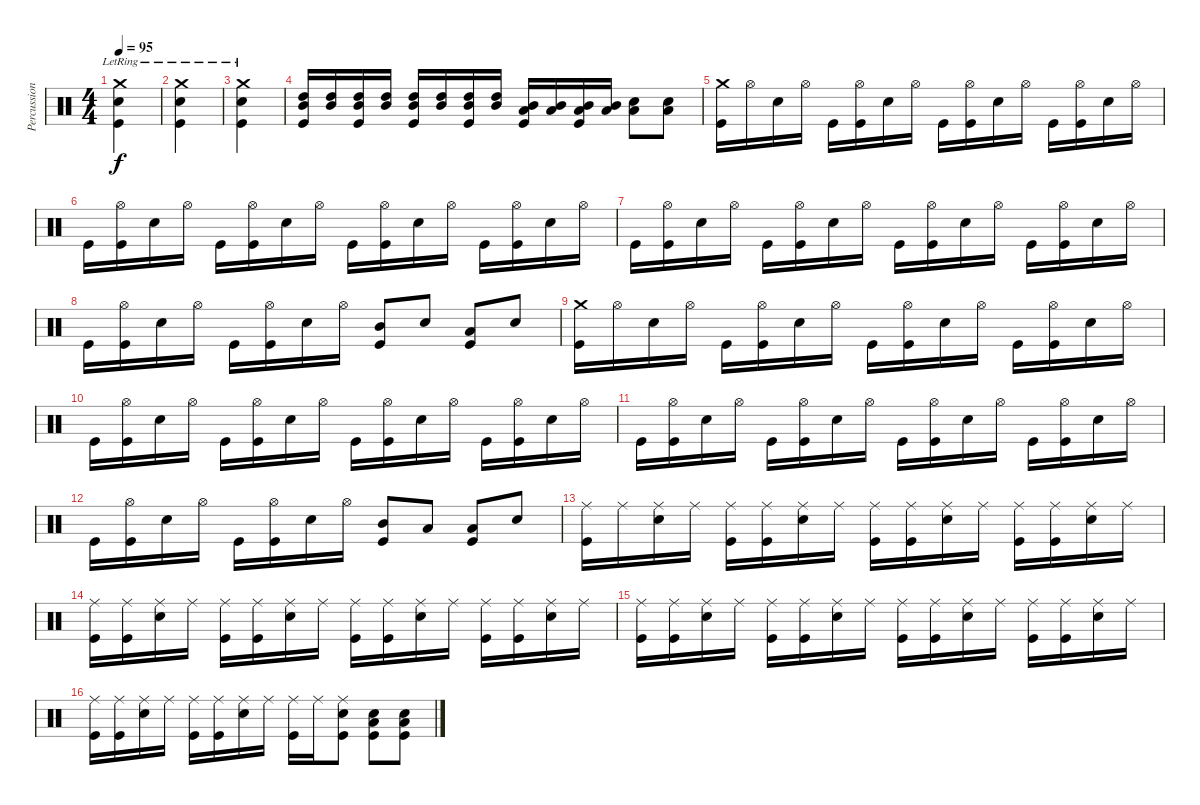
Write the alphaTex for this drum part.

\track ("Percussion" "Percussion") {instrument percussion}
\staff {score}
\articulation defaults
\ts (4 4)
\tempo 95
\clef neutral
\ks c
("Crash medium (hit)"{lr} "Snare (hit) 2" "Kick (hit)").4{dy f} |
("Crash medium (hit)"{lr} "Snare (hit) 2" "Kick (hit)").4 |
("Crash medium (hit)"{lr} "Snare (hit) 2" "Kick (hit)").4 |
("High Tom (hit)" "Mid Tom (hit)" "Kick (hit)").16 ("High Tom (hit)" "Mid Tom (hit)").16 ("High Tom (hit)" "Mid Tom (hit)" "Kick (hit)").16 ("High Tom (hit)" "Mid Tom (hit)").16 ("High Tom (hit)" "Mid Tom (hit)" "Kick (hit)").16 ("High Tom (hit)" "Mid Tom (hit)").16 ("High Tom (hit)" "Mid Tom (hit)" "Kick (hit)").16 ("High Tom (hit)" "Mid Tom (hit)").16 ("Low Tom (hit)" "Mid Tom (hit)" "Kick (hit)").16 ("Low Tom (hit)" "Mid Tom (hit)").16 ("Low Tom (hit)" "Mid Tom (hit)" "Kick (hit)").16 ("Low Tom (hit)" "Mid Tom (hit)").16 ("Snare (hit) 2" "Low Tom (hit)").8 ("Snare (hit) 2" "Low Tom (hit)").8 |
("Crash medium (hit)" "Kick (hit)").16 "Hi-Hat (open)".16 "Snare (hit) 2".16 "Hi-Hat (open)".16 "Kick (hit)".16 ("Hi-Hat (open)" "Kick (hit)").16 "Snare (hit) 2".16 "Hi-Hat (open)".16 "Kick (hit)".16 ("Hi-Hat (open)" "Kick (hit)").16 "Snare (hit) 2".16 "Hi-Hat (open)".16 "Kick (hit)".16 ("Hi-Hat (open)" "Kick (hit)").16 "Snare (hit) 2".16 "Hi-Hat (open)".16 |
"Kick (hit)".16 ("Hi-Hat (open)" "Kick (hit)").16 "Snare (hit) 2".16 "Hi-Hat (open)".16 "Kick (hit)".16 ("Hi-Hat (open)" "Kick (hit)").16 "Snare (hit) 2".16 "Hi-Hat (open)".16 "Kick (hit)".16 ("Hi-Hat (open)" "Kick (hit)").16 "Snare (hit) 2".16 "Hi-Hat (open)".16 "Kick (hit)".16 ("Hi-Hat (open)" "Kick (hit)").16 "Snare (hit) 2".16 "Hi-Hat (open)".16 |
"Kick (hit)".16 ("Hi-Hat (open)" "Kick (hit)").16 "Snare (hit) 2".16 "Hi-Hat (open)".16 "Kick (hit)".16 ("Hi-Hat (open)" "Kick (hit)").16 "Snare (hit) 2".16 "Hi-Hat (open)".16 "Kick (hit)".16 ("Hi-Hat (open)" "Kick (hit)").16 "Snare (hit) 2".16 "Hi-Hat (open)".16 "Kick (hit)".16 ("Hi-Hat (open)" "Kick (hit)").16 "Snare (hit) 2".16 "Hi-Hat (open)".16 |
"Kick (hit)".16 ("Hi-Hat (open)" "Kick (hit)").16 "Snare (hit) 2".16 "Hi-Hat (open)".16 "Kick (hit)".16 ("Hi-Hat (open)" "Kick (hit)").16 "Snare (hit) 2".16 "Hi-Hat (open)".16 ("Mid Tom (hit)" "Kick (hit)").8 "Snare (hit) 2".8 ("Low Tom (hit)" "Kick (hit)").8 "Snare (hit) 2".8 |
("Crash medium (hit)" "Kick (hit)").16 "Hi-Hat (open)".16 "Snare (hit) 2".16 "Hi-Hat (open)".16 "Kick (hit)".16 ("Hi-Hat (open)" "Kick (hit)").16 "Snare (hit) 2".16 "Hi-Hat (open)".16 "Kick (hit)".16 ("Hi-Hat (open)" "Kick (hit)").16 "Snare (hit) 2".16 "Hi-Hat (open)".16 "Kick (hit)".16 ("Hi-Hat (open)" "Kick (hit)").16 "Snare (hit) 2".16 "Hi-Hat (open)".16 |
"Kick (hit)".16 ("Hi-Hat (open)" "Kick (hit)").16 "Snare (hit) 2".16 "Hi-Hat (open)".16 "Kick (hit)".16 ("Hi-Hat (open)" "Kick (hit)").16 "Snare (hit) 2".16 "Hi-Hat (open)".16 "Kick (hit)".16 ("Hi-Hat (open)" "Kick (hit)").16 "Snare (hit) 2".16 "Hi-Hat (open)".16 "Kick (hit)".16 ("Hi-Hat (open)" "Kick (hit)").16 "Snare (hit) 2".16 "Hi-Hat (open)".16 |
"Kick (hit)".16 ("Hi-Hat (open)" "Kick (hit)").16 "Snare (hit) 2".16 "Hi-Hat (open)".16 "Kick (hit)".16 ("Hi-Hat (open)" "Kick (hit)").16 "Snare (hit) 2".16 "Hi-Hat (open)".16 "Kick (hit)".16 ("Hi-Hat (open)" "Kick (hit)").16 "Snare (hit) 2".16 "Hi-Hat (open)".16 "Kick (hit)".16 ("Hi-Hat (open)" "Kick (hit)").16 "Snare (hit) 2".16 "Hi-Hat (open)".16 |
"Kick (hit)".16 ("Hi-Hat (open)" "Kick (hit)").16 "Snare (hit) 2".16 "Hi-Hat (open)".16 "Kick (hit)".16 ("Hi-Hat (open)" "Kick (hit)").16 "Snare (hit) 2".16 "Hi-Hat (open)".16 ("Mid Tom (hit)" "Kick (hit)").8 "Low Tom (hit)".8 ("Low Tom (hit)" "Kick (hit)").8 "Snare (hit) 2".8 |
("Ride (middle)" "Kick (hit)").16 "Ride (middle)".16 ("Ride (middle)" "Snare (hit) 2").16 "Ride (middle)".16 ("Ride (middle)" "Kick (hit)").16 ("Ride (middle)" "Kick (hit)").16 ("Ride (middle)" "Snare (hit) 2").16 "Ride (middle)".16 ("Ride (middle)" "Kick (hit)").16 ("Ride (middle)" "Kick (hit)").16 ("Ride (middle)" "Snare (hit) 2").16 "Ride (middle)".16 ("Ride (middle)" "Kick (hit)").16 ("Ride (middle)" "Kick (hit)").16 ("Ride (middle)" "Snare (hit) 2").16 "Ride (middle)".16 |
("Ride (middle)" "Kick (hit)").16 ("Ride (middle)" "Kick (hit)").16 ("Ride (middle)" "Snare (hit) 2").16 "Ride (middle)".16 ("Ride (middle)" "Kick (hit)").16 ("Ride (middle)" "Kick (hit)").16 ("Ride (middle)" "Snare (hit) 2").16 "Ride (middle)".16 ("Ride (middle)" "Kick (hit)").16 ("Ride (middle)" "Kick (hit)").16 ("Ride (middle)" "Snare (hit) 2").16 "Ride (middle)".16 ("Ride (middle)" "Kick (hit)").16 ("Ride (middle)" "Kick (hit)").16 ("Ride (middle)" "Snare (hit) 2").16 "Ride (middle)".16 |
("Ride (middle)" "Kick (hit)").16 ("Ride (middle)" "Kick (hit)").16 ("Ride (middle)" "Snare (hit) 2").16 "Ride (middle)".16 ("Ride (middle)" "Kick (hit)").16 ("Ride (middle)" "Kick (hit)").16 ("Ride (middle)" "Snare (hit) 2").16 "Ride (middle)".16 ("Ride (middle)" "Kick (hit)").16 ("Ride (middle)" "Kick (hit)").16 ("Ride (middle)" "Snare (hit) 2").16 "Ride (middle)".16 ("Ride (middle)" "Kick (hit)").16 ("Ride (middle)" "Kick (hit)").16 ("Ride (middle)" "Snare (hit) 2").16 "Ride (middle)".16 |
("Ride (middle)" "Kick (hit)").16 ("Ride (middle)" "Kick (hit)").16 ("Ride (middle)" "Snare (hit) 2").16 "Ride (middle)".16 ("Ride (middle)" "Kick (hit)").16 ("Ride (middle)" "Kick (hit)").16 ("Ride (middle)" "Snare (hit) 2").16 "Ride (middle)".16 ("Ride (middle)" "Kick (hit)").16 "Ride (middle)".16 ("Ride (middle)" "Snare (hit) 2" "Kick (hit)").8 ("Snare (hit) 2" "Low Tom (hit)" "Kick (hit)").8 ("Snare (hit) 2" "Low Tom (hit)" "Kick (hit)").8
